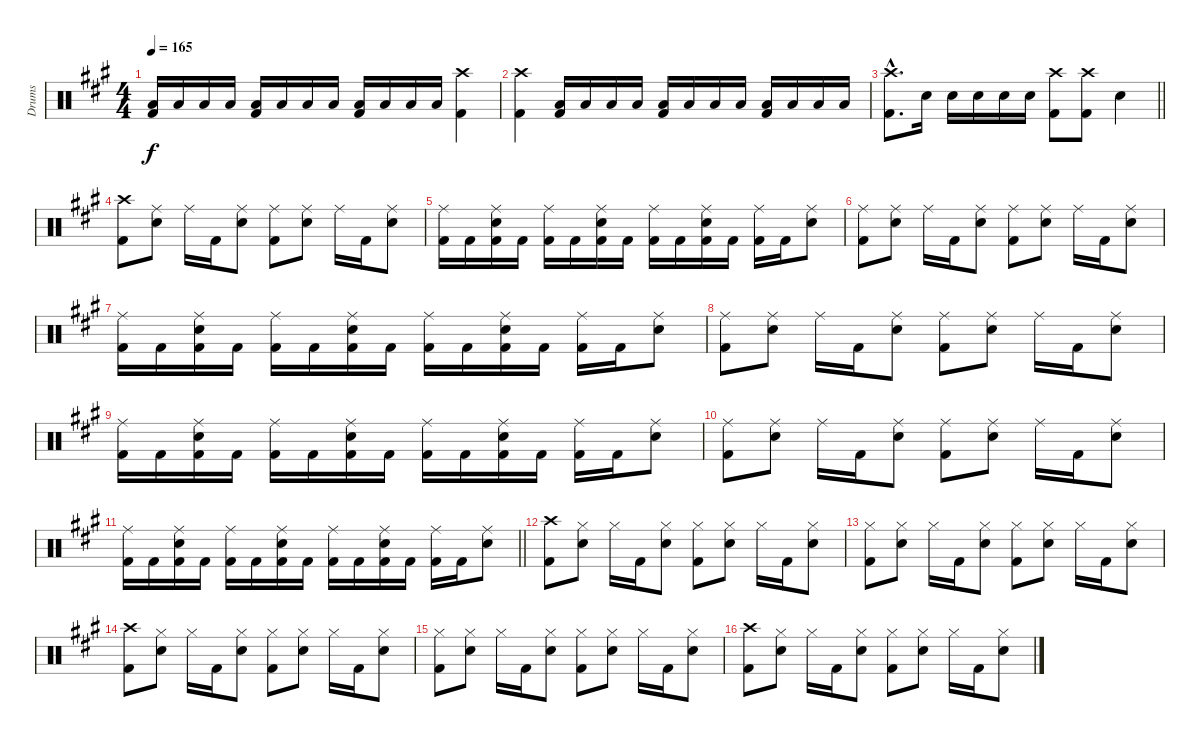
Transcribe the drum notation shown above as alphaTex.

\track ("Drums" "Drums") {instrument percussion}
\staff {score}
\articulation defaults
\ts (4 4)
\tempo 165
\clef neutral
\ks a
("Low Floor Tom (hit)" "Kick (hit) 2").16{dy f} "Low Floor Tom (hit)".16 "Low Floor Tom (hit)".16 "Low Floor Tom (hit)".16 ("Low Floor Tom (hit)" "Kick (hit) 2").16 "Low Floor Tom (hit)".16 "Low Floor Tom (hit)".16 "Low Floor Tom (hit)".16 ("Low Floor Tom (hit)" "Kick (hit) 2").16 "Low Floor Tom (hit)".16 "Low Floor Tom (hit)".16 "Low Floor Tom (hit)".16 ("Crash high (hit)" "Kick (hit) 2").4 |
("Crash high (hit)" "Kick (hit) 2").4 ("Low Floor Tom (hit)" "Kick (hit) 2").16 "Low Floor Tom (hit)".16 "Low Floor Tom (hit)".16 "Low Floor Tom (hit)".16 ("Low Floor Tom (hit)" "Kick (hit) 2").16 "Low Floor Tom (hit)".16 "Low Floor Tom (hit)".16 "Low Floor Tom (hit)".16 ("Low Floor Tom (hit)" "Kick (hit) 2").16 "Low Floor Tom (hit)".16 "Low Floor Tom (hit)".16 "Low Floor Tom (hit)".16 |
\barLineRight lightlight
("Crash high (hit)"{hac} "Kick (hit) 2"{hac}).8{d} "Snare (hit) 2".16 "Snare (hit) 2".16 "Snare (hit) 2".16 "Snare (hit) 2".16 "Snare (hit) 2".16 ("Crash high (hit)" "Kick (hit) 2").8 ("Crash high (hit)" "Kick (hit) 2").8 "Snare (hit) 2".4 |
("Crash high (hit)" "Kick (hit) 2").8 ("Ride (middle)" "Snare (hit) 2").8 "Ride (middle)".16 "Kick (hit) 2".16 ("Ride (middle)" "Snare (hit) 2").8 ("Ride (middle)" "Kick (hit) 2").8 ("Ride (middle)" "Snare (hit) 2").8 "Ride (middle)".16 "Kick (hit) 2".16 ("Ride (middle)" "Snare (hit) 2").8 |
("Ride (middle)" "Kick (hit) 2").16 "Kick (hit) 2".16 ("Ride (middle)" "Snare (hit) 2" "Kick (hit) 2").16 "Kick (hit) 2".16 ("Ride (middle)" "Kick (hit) 2").16 "Kick (hit) 2".16 ("Ride (middle)" "Snare (hit) 2" "Kick (hit) 2").16 "Kick (hit) 2".16 ("Ride (middle)" "Kick (hit) 2").16 "Kick (hit) 2".16 ("Ride (middle)" "Snare (hit) 2" "Kick (hit) 2").16 "Kick (hit) 2".16 ("Ride (middle)" "Kick (hit) 2").16 "Kick (hit) 2".16 ("Ride (middle)" "Snare (hit) 2").8 |
("Ride (middle)" "Kick (hit) 2").8 ("Ride (middle)" "Snare (hit) 2").8 "Ride (middle)".16 "Kick (hit) 2".16 ("Ride (middle)" "Snare (hit) 2").8 ("Ride (middle)" "Kick (hit) 2").8 ("Ride (middle)" "Snare (hit) 2").8 "Ride (middle)".16 "Kick (hit) 2".16 ("Ride (middle)" "Snare (hit) 2").8 |
("Ride (middle)" "Kick (hit) 2").16 "Kick (hit) 2".16 ("Ride (middle)" "Snare (hit) 2" "Kick (hit) 2").16 "Kick (hit) 2".16 ("Ride (middle)" "Kick (hit) 2").16 "Kick (hit) 2".16 ("Ride (middle)" "Snare (hit) 2" "Kick (hit) 2").16 "Kick (hit) 2".16 ("Ride (middle)" "Kick (hit) 2").16 "Kick (hit) 2".16 ("Ride (middle)" "Snare (hit) 2" "Kick (hit) 2").16 "Kick (hit) 2".16 ("Ride (middle)" "Kick (hit) 2").16 "Kick (hit) 2".16 ("Ride (middle)" "Snare (hit) 2").8 |
("Ride (middle)" "Kick (hit) 2").8 ("Ride (middle)" "Snare (hit) 2").8 "Ride (middle)".16 "Kick (hit) 2".16 ("Ride (middle)" "Snare (hit) 2").8 ("Ride (middle)" "Kick (hit) 2").8 ("Ride (middle)" "Snare (hit) 2").8 "Ride (middle)".16 "Kick (hit) 2".16 ("Ride (middle)" "Snare (hit) 2").8 |
("Ride (middle)" "Kick (hit) 2").16 "Kick (hit) 2".16 ("Ride (middle)" "Snare (hit) 2" "Kick (hit) 2").16 "Kick (hit) 2".16 ("Ride (middle)" "Kick (hit) 2").16 "Kick (hit) 2".16 ("Ride (middle)" "Snare (hit) 2" "Kick (hit) 2").16 "Kick (hit) 2".16 ("Ride (middle)" "Kick (hit) 2").16 "Kick (hit) 2".16 ("Ride (middle)" "Snare (hit) 2" "Kick (hit) 2").16 "Kick (hit) 2".16 ("Ride (middle)" "Kick (hit) 2").16 "Kick (hit) 2".16 ("Ride (middle)" "Snare (hit) 2").8 |
("Ride (middle)" "Kick (hit) 2").8 ("Ride (middle)" "Snare (hit) 2").8 "Ride (middle)".16 "Kick (hit) 2".16 ("Ride (middle)" "Snare (hit) 2").8 ("Ride (middle)" "Kick (hit) 2").8 ("Ride (middle)" "Snare (hit) 2").8 "Ride (middle)".16 "Kick (hit) 2".16 ("Ride (middle)" "Snare (hit) 2").8 |
\barLineRight lightlight
("Ride (middle)" "Kick (hit) 2").16 "Kick (hit) 2".16 ("Ride (middle)" "Snare (hit) 2" "Kick (hit) 2").16 "Kick (hit) 2".16 ("Ride (middle)" "Kick (hit) 2").16 "Kick (hit) 2".16 ("Ride (middle)" "Snare (hit) 2" "Kick (hit) 2").16 "Kick (hit) 2".16 ("Ride (middle)" "Kick (hit) 2").16 "Kick (hit) 2".16 ("Ride (middle)" "Snare (hit) 2" "Kick (hit) 2").16 "Kick (hit) 2".16 ("Ride (middle)" "Kick (hit) 2").16 "Kick (hit) 2".16 ("Ride (middle)" "Snare (hit) 2").8 |
("Crash high (hit)" "Kick (hit) 2").8 ("Hi-Hat (closed)" "Snare (hit) 2").8 "Hi-Hat (closed)".16 "Kick (hit) 2".16 ("Hi-Hat (closed)" "Snare (hit) 2").8 ("Hi-Hat (closed)" "Kick (hit) 2").8 ("Hi-Hat (closed)" "Snare (hit) 2").8 "Hi-Hat (closed)".16 "Kick (hit) 2".16 ("Hi-Hat (closed)" "Snare (hit) 2").8 |
("Hi-Hat (closed)" "Kick (hit) 2").8 ("Hi-Hat (closed)" "Snare (hit) 2").8 "Hi-Hat (closed)".16 "Kick (hit) 2".16 ("Hi-Hat (closed)" "Snare (hit) 2").8 ("Hi-Hat (closed)" "Kick (hit) 2").8 ("Hi-Hat (closed)" "Snare (hit) 2").8 "Hi-Hat (closed)".16 "Kick (hit) 2".16 ("Hi-Hat (closed)" "Snare (hit) 2").8 |
("Crash high (hit)" "Kick (hit) 2").8 ("Hi-Hat (closed)" "Snare (hit) 2").8 "Hi-Hat (closed)".16 "Kick (hit) 2".16 ("Hi-Hat (closed)" "Snare (hit) 2").8 ("Hi-Hat (closed)" "Kick (hit) 2").8 ("Hi-Hat (closed)" "Snare (hit) 2").8 "Hi-Hat (closed)".16 "Kick (hit) 2".16 ("Hi-Hat (closed)" "Snare (hit) 2").8 |
("Hi-Hat (closed)" "Kick (hit) 2").8 ("Hi-Hat (closed)" "Snare (hit) 2").8 "Hi-Hat (closed)".16 "Kick (hit) 2".16 ("Hi-Hat (closed)" "Snare (hit) 2").8 ("Hi-Hat (closed)" "Kick (hit) 2").8 ("Hi-Hat (closed)" "Snare (hit) 2").8 "Hi-Hat (closed)".16 "Kick (hit) 2".16 ("Hi-Hat (closed)" "Snare (hit) 2").8 |
("Crash high (hit)" "Kick (hit) 2").8 ("Hi-Hat (closed)" "Snare (hit) 2").8 "Hi-Hat (closed)".16 "Kick (hit) 2".16 ("Hi-Hat (closed)" "Snare (hit) 2").8 ("Hi-Hat (closed)" "Kick (hit) 2").8 ("Hi-Hat (closed)" "Snare (hit) 2").8 "Hi-Hat (closed)".16 "Kick (hit) 2".16 ("Hi-Hat (closed)" "Snare (hit) 2").8
